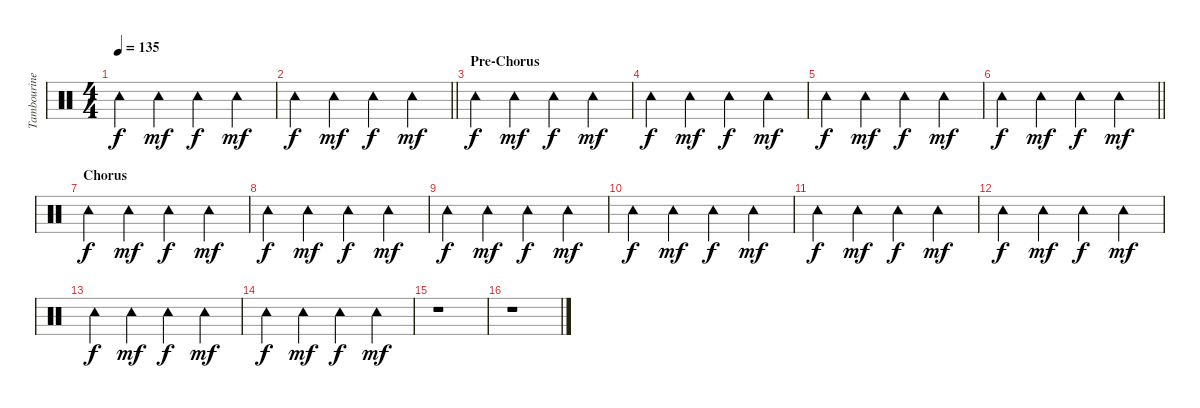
\track ("Tambourine" "Tambourine") {instrument percussion}
\staff {score}
\articulation defaults
\ts (4 4)
\tempo 135
\clef neutral
\ks c "Tambourine (hit)".4{dy f} "Tambourine (hit)".4{dy mf} "Tambourine (hit)".4{dy f} "Tambourine (hit)".4{dy mf}
|
\barLineRight lightlight "Tambourine (hit)".4{dy f} "Tambourine (hit)".4{dy mf} "Tambourine (hit)".4{dy f} "Tambourine (hit)".4{dy mf}
|
\section ("" "Pre-Chorus")
"Tambourine (hit)".4{dy f} "Tambourine (hit)".4{dy mf} "Tambourine (hit)".4{dy f} "Tambourine (hit)".4{dy mf} |
"Tambourine (hit)".4{dy f} "Tambourine (hit)".4{dy mf} "Tambourine (hit)".4{dy f} "Tambourine (hit)".4{dy mf} |
"Tambourine (hit)".4{dy f} "Tambourine (hit)".4{dy mf} "Tambourine (hit)".4{dy f} "Tambourine (hit)".4{dy mf} |
\barLineRight lightlight "Tambourine (hit)".4{dy f} "Tambourine (hit)".4{dy mf} "Tambourine (hit)".4{dy f} "Tambourine (hit)".4{dy mf}
|
\section ("" "Chorus")
"Tambourine (hit)".4{dy f} "Tambourine (hit)".4{dy mf} "Tambourine (hit)".4{dy f} "Tambourine (hit)".4{dy mf} |
"Tambourine (hit)".4{dy f} "Tambourine (hit)".4{dy mf} "Tambourine (hit)".4{dy f} "Tambourine (hit)".4{dy mf} |
"Tambourine (hit)".4{dy f} "Tambourine (hit)".4{dy mf} "Tambourine (hit)".4{dy f} "Tambourine (hit)".4{dy mf} |
"Tambourine (hit)".4{dy f} "Tambourine (hit)".4{dy mf} "Tambourine (hit)".4{dy f} "Tambourine (hit)".4{dy mf} |
"Tambourine (hit)".4{dy f} "Tambourine (hit)".4{dy mf} "Tambourine (hit)".4{dy f} "Tambourine (hit)".4{dy mf} |
"Tambourine (hit)".4{dy f} "Tambourine (hit)".4{dy mf} "Tambourine (hit)".4{dy f} "Tambourine (hit)".4{dy mf} |
"Tambourine (hit)".4{dy f} "Tambourine (hit)".4{dy mf} "Tambourine (hit)".4{dy f} "Tambourine (hit)".4{dy mf} |
"Tambourine (hit)".4{dy f} "Tambourine (hit)".4{dy mf} "Tambourine (hit)".4{dy f} "Tambourine (hit)".4{dy mf} |
r.1 |
r.1
